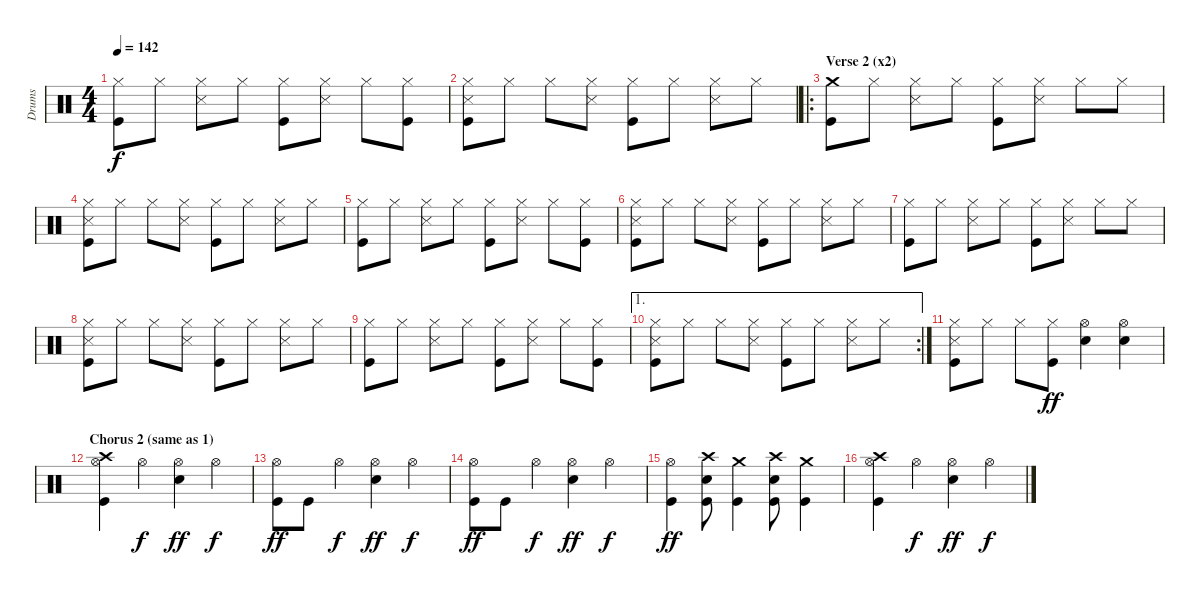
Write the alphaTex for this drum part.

\track ("Drums" "Drums") {instrument percussion}
\staff {score}
\articulation defaults
\ts (4 4)
\tempo 142
\clef neutral
\ks c
("Hi-Hat (closed)" "Kick (hit)").8{dy f} "Hi-Hat (closed)".8 ("Hi-Hat (closed)" "Snare (side stick) 3").8 "Hi-Hat (closed)".8 ("Hi-Hat (closed)" "Kick (hit)").8 ("Hi-Hat (closed)" "Snare (side stick) 3").8 "Hi-Hat (closed)".8 ("Hi-Hat (closed)" "Kick (hit)").8 |
("Hi-Hat (closed)" "Snare (side stick) 3" "Kick (hit)").8 "Hi-Hat (closed)".8 "Hi-Hat (closed)".8 ("Hi-Hat (closed)" "Snare (side stick) 3").8 ("Hi-Hat (closed)" "Kick (hit)").8 "Hi-Hat (closed)".8 ("Hi-Hat (closed)" "Snare (side stick) 3").8 "Hi-Hat (closed)".8 |
\ro
\section ("" "Verse 2 (x2)")
("Crash medium (hit)" "Kick (hit)").8 "Hi-Hat (closed)".8 ("Hi-Hat (closed)" "Snare (side stick) 3").8 "Hi-Hat (closed)".8 ("Hi-Hat (closed)" "Kick (hit)").8 ("Hi-Hat (closed)" "Snare (side stick) 3").8 "Hi-Hat (closed)".8 "Hi-Hat (closed)".8 |
("Hi-Hat (closed)" "Snare (side stick) 3" "Kick (hit)").8 "Hi-Hat (closed)".8 "Hi-Hat (closed)".8 ("Hi-Hat (closed)" "Snare (side stick) 3").8 ("Hi-Hat (closed)" "Kick (hit)").8 "Hi-Hat (closed)".8 ("Hi-Hat (closed)" "Snare (side stick) 3").8 "Hi-Hat (closed)".8 |
("Hi-Hat (closed)" "Kick (hit)").8 "Hi-Hat (closed)".8 ("Hi-Hat (closed)" "Snare (side stick) 3").8 "Hi-Hat (closed)".8 ("Hi-Hat (closed)" "Kick (hit)").8 ("Hi-Hat (closed)" "Snare (side stick) 3").8 "Hi-Hat (closed)".8 ("Hi-Hat (closed)" "Kick (hit)").8 |
("Hi-Hat (closed)" "Snare (side stick) 3" "Kick (hit)").8 "Hi-Hat (closed)".8 "Hi-Hat (closed)".8 ("Hi-Hat (closed)" "Snare (side stick) 3").8 ("Hi-Hat (closed)" "Kick (hit)").8 "Hi-Hat (closed)".8 ("Hi-Hat (closed)" "Snare (side stick) 3").8 "Hi-Hat (closed)".8 |
("Hi-Hat (closed)" "Kick (hit)").8 "Hi-Hat (closed)".8 ("Hi-Hat (closed)" "Snare (side stick) 3").8 "Hi-Hat (closed)".8 ("Hi-Hat (closed)" "Kick (hit)").8 ("Hi-Hat (closed)" "Snare (side stick) 3").8 "Hi-Hat (closed)".8 "Hi-Hat (closed)".8 |
("Hi-Hat (closed)" "Snare (side stick) 3" "Kick (hit)").8 "Hi-Hat (closed)".8 "Hi-Hat (closed)".8 ("Hi-Hat (closed)" "Snare (side stick) 3").8 ("Hi-Hat (closed)" "Kick (hit)").8 "Hi-Hat (closed)".8 ("Hi-Hat (closed)" "Snare (side stick) 3").8 "Hi-Hat (closed)".8 |
("Hi-Hat (closed)" "Kick (hit)").8 "Hi-Hat (closed)".8 ("Hi-Hat (closed)" "Snare (side stick) 3").8 "Hi-Hat (closed)".8 ("Hi-Hat (closed)" "Kick (hit)").8 ("Hi-Hat (closed)" "Snare (side stick) 3").8 "Hi-Hat (closed)".8 ("Hi-Hat (closed)" "Kick (hit)").8 |
\ae 1
\rc 2
("Hi-Hat (closed)" "Snare (side stick) 3" "Kick (hit)").8 "Hi-Hat (closed)".8 "Hi-Hat (closed)".8 ("Hi-Hat (closed)" "Snare (side stick) 3").8 ("Hi-Hat (closed)" "Kick (hit)").8 "Hi-Hat (closed)".8 ("Hi-Hat (closed)" "Snare (side stick) 3").8 "Hi-Hat (closed)".8 |
("Hi-Hat (closed)" "Snare (side stick) 3" "Kick (hit)").8 "Hi-Hat (closed)".8 "Hi-Hat (closed)".8 ("Hi-Hat (closed)" "Kick (hit)").8{dy ff} ("Hi-Hat (open)" "Snare (hit) 2").4 ("Hi-Hat (open)" "Snare (hit) 2").4 |
\section ("" "Chorus 2 (same as 1)")
("Hi-Hat (open)" "Crash high (hit)" "Kick (hit)").4 "Hi-Hat (open)".4{dy f} ("Hi-Hat (open)" "Snare (hit) 2").4{dy ff} "Hi-Hat (open)".4{dy f} |
("Hi-Hat (open)" "Kick (hit)").8{dy ff} "Kick (hit)".8 "Hi-Hat (open)".4{dy f} ("Hi-Hat (open)" "Snare (hit) 2").4{dy ff} "Hi-Hat (open)".4{dy f} |
("Hi-Hat (open)" "Kick (hit)").8{dy ff} "Kick (hit)".8 "Hi-Hat (open)".4{dy f} ("Hi-Hat (open)" "Snare (hit) 2").4{dy ff} "Hi-Hat (open)".4{dy f} |
("Hi-Hat (open)" "Kick (hit)").4{dy ff} ("Crash high (hit)" "Snare (hit) 2" "Kick (hit)").8 ("Crash medium (hit)" "Kick (hit)").4 ("Crash high (hit)" "Snare (hit) 2" "Kick (hit)").8 ("Crash medium (hit)" "Kick (hit)").4 |
("Hi-Hat (open)" "Crash high (hit)" "Kick (hit)").4 "Hi-Hat (open)".4{dy f} ("Hi-Hat (open)" "Snare (hit) 2").4{dy ff} "Hi-Hat (open)".4{dy f}
